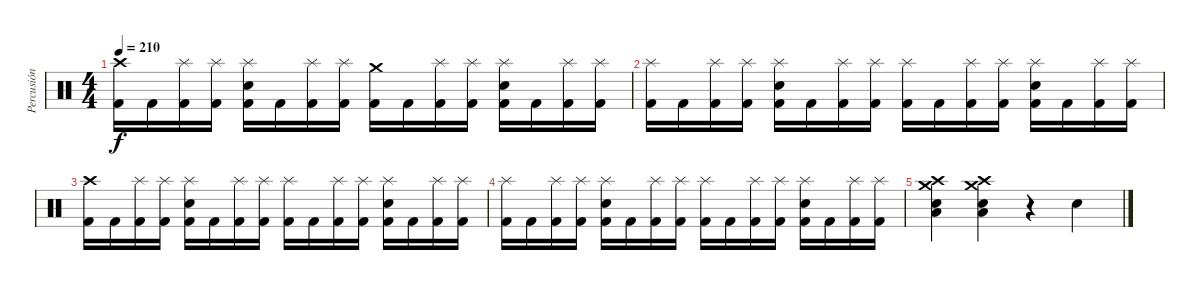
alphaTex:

\track ("Percusión" "Percusión") {instrument percussion}
\staff {score}
\articulation defaults
\ts (4 4)
\tempo 210
\clef neutral
\ks c
("Crash high (hit)" "Kick (hit) 2").16{dy f} "Kick (hit) 2".16 ("Splash (hit)" "Kick (hit) 2").16 ("Splash (hit)" "Kick (hit) 2").16 ("Splash (hit)" "Electric Snare (hit)" "Kick (hit) 2").16 "Kick (hit) 2".16 ("Splash (hit)" "Kick (hit) 2").16 ("Splash (hit)" "Kick (hit) 2").16 ("Crash medium (hit)" "Kick (hit) 2").16 "Kick (hit) 2".16 ("Splash (hit)" "Kick (hit) 2").16 ("Splash (hit)" "Kick (hit) 2").16 ("Splash (hit)" "Electric Snare (hit)" "Kick (hit) 2").16 "Kick (hit) 2".16 ("Splash (hit)" "Kick (hit) 2").16 ("Splash (hit)" "Kick (hit) 2").16 |
("Splash (hit)" "Kick (hit) 2").16 "Kick (hit) 2".16 ("Splash (hit)" "Kick (hit) 2").16 ("Splash (hit)" "Kick (hit) 2").16 ("Splash (hit)" "Electric Snare (hit)" "Kick (hit) 2").16 "Kick (hit) 2".16 ("Splash (hit)" "Kick (hit) 2").16 ("Splash (hit)" "Kick (hit) 2").16 ("Splash (hit)" "Kick (hit) 2").16 "Kick (hit) 2".16 ("Splash (hit)" "Kick (hit) 2").16 ("Splash (hit)" "Kick (hit) 2").16 ("Splash (hit)" "Electric Snare (hit)" "Kick (hit) 2").16 "Kick (hit) 2".16 ("Splash (hit)" "Kick (hit) 2").16 ("Splash (hit)" "Kick (hit) 2").16 |
("Crash high (hit)" "Kick (hit) 2").16 "Kick (hit) 2".16 ("Splash (hit)" "Kick (hit) 2").16 ("Splash (hit)" "Kick (hit) 2").16 ("Splash (hit)" "Electric Snare (hit)" "Kick (hit) 2").16 "Kick (hit) 2".16 ("Splash (hit)" "Kick (hit) 2").16 ("Splash (hit)" "Kick (hit) 2").16 ("Splash (hit)" "Kick (hit) 2").16 "Kick (hit) 2".16 ("Splash (hit)" "Kick (hit) 2").16 ("Splash (hit)" "Kick (hit) 2").16 ("Splash (hit)" "Electric Snare (hit)" "Kick (hit) 2").16 "Kick (hit) 2".16 ("Splash (hit)" "Kick (hit) 2").16 ("Splash (hit)" "Kick (hit) 2").16 |
("Splash (hit)" "Kick (hit) 2").16 "Kick (hit) 2".16 ("Splash (hit)" "Kick (hit) 2").16 ("Splash (hit)" "Kick (hit) 2").16 ("Splash (hit)" "Electric Snare (hit)" "Kick (hit) 2").16 "Kick (hit) 2".16 ("Splash (hit)" "Kick (hit) 2").16 ("Splash (hit)" "Kick (hit) 2").16 ("Splash (hit)" "Kick (hit) 2").16 "Kick (hit) 2".16 ("Splash (hit)" "Kick (hit) 2").16 ("Splash (hit)" "Kick (hit) 2").16 ("Splash (hit)" "Electric Snare (hit)" "Kick (hit) 2").16 "Kick (hit) 2".16 ("Splash (hit)" "Kick (hit) 2").16 ("Splash (hit)" "Kick (hit) 2").16 |
("Crash high (hit)" "Crash medium (hit)" "Electric Snare (hit)" "Low Tom (hit)").4 ("Crash high (hit)" "Crash medium (hit)" "Electric Snare (hit)" "Low Tom (hit)").4 r.4 "Electric Snare (hit)".4
